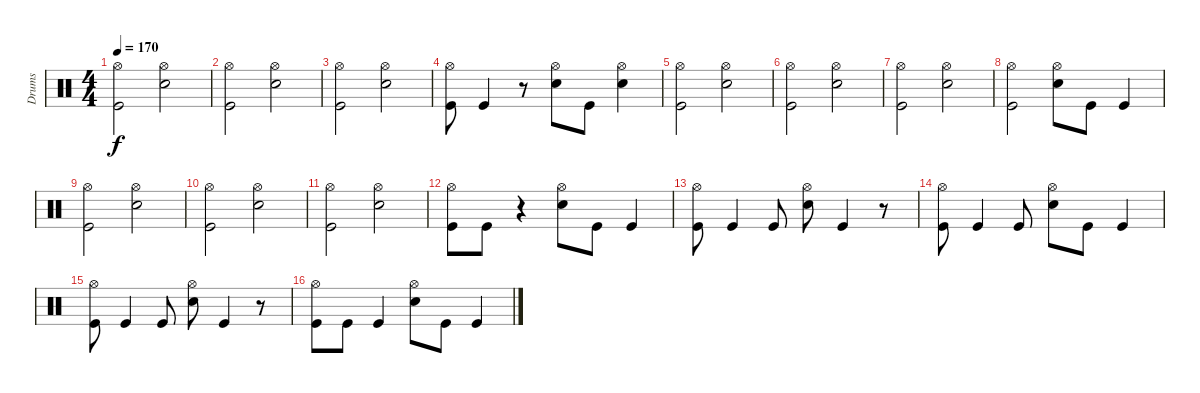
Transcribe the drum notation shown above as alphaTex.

\track ("Drums" "Drums") {instrument percussion}
\staff {score}
\articulation defaults
\ts (4 4)
\tempo 170
\clef neutral
\ks c
("Hi-Hat (open)" "Kick (hit)").2{dy f} ("Hi-Hat (open)" "Snare (hit) 2").2 |
("Hi-Hat (open)" "Kick (hit)").2 ("Hi-Hat (open)" "Snare (hit) 2").2 |
("Hi-Hat (open)" "Kick (hit)").2 ("Hi-Hat (open)" "Snare (hit) 2").2 |
("Hi-Hat (open)" "Kick (hit)").8 "Kick (hit)".4 r.8 ("Hi-Hat (open)" "Snare (hit) 2").8 "Kick (hit)".8 ("Hi-Hat (open)" "Snare (hit) 2").4 |
("Hi-Hat (open)" "Kick (hit)").2 ("Hi-Hat (open)" "Snare (hit) 2").2 |
("Hi-Hat (open)" "Kick (hit)").2 ("Hi-Hat (open)" "Snare (hit) 2").2 |
("Hi-Hat (open)" "Kick (hit)").2 ("Hi-Hat (open)" "Snare (hit) 2").2 |
("Hi-Hat (open)" "Kick (hit)").2 ("Hi-Hat (open)" "Snare (hit) 2").8 "Kick (hit)".8 "Kick (hit)".4 |
("Hi-Hat (open)" "Kick (hit)").2 ("Hi-Hat (open)" "Snare (hit) 2").2 |
("Hi-Hat (open)" "Kick (hit)").2 ("Hi-Hat (open)" "Snare (hit) 2").2 |
("Hi-Hat (open)" "Kick (hit)").2 ("Hi-Hat (open)" "Snare (hit) 2").2 |
("Hi-Hat (open)" "Kick (hit)").8 "Kick (hit)".8 r.4 ("Hi-Hat (open)" "Snare (hit) 2").8 "Kick (hit)".8 "Kick (hit)".4 |
("Hi-Hat (open)" "Kick (hit)").8 "Kick (hit)".4 "Kick (hit)".8 ("Hi-Hat (open)" "Snare (hit) 2").8 "Kick (hit)".4 r.8 |
("Hi-Hat (open)" "Kick (hit)").8 "Kick (hit)".4 "Kick (hit)".8 ("Hi-Hat (open)" "Snare (hit) 2").8 "Kick (hit)".8 "Kick (hit)".4 |
("Hi-Hat (open)" "Kick (hit)").8 "Kick (hit)".4 "Kick (hit)".8 ("Hi-Hat (open)" "Snare (hit) 2").8 "Kick (hit)".4 r.8 |
("Hi-Hat (open)" "Kick (hit)").8 "Kick (hit)".8 "Kick (hit)".4 ("Hi-Hat (open)" "Snare (hit) 2").8 "Kick (hit)".8 "Kick (hit)".4
